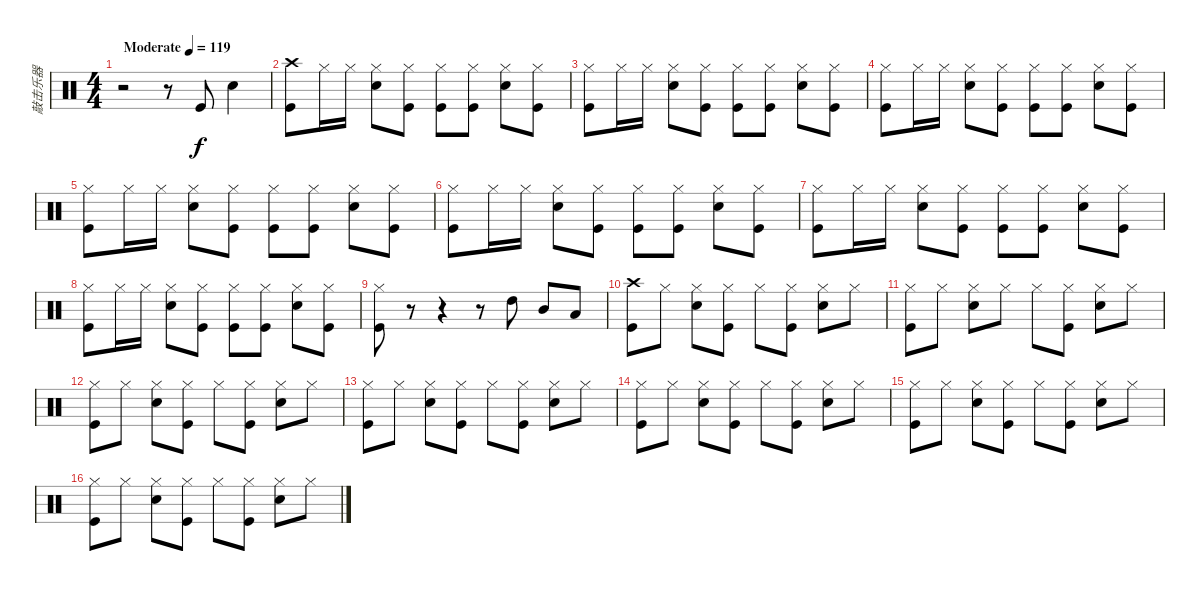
\track ("敲击乐器" "敲击乐器") {instrument percussion}
\staff {score}
\articulation defaults
\ts (4 4)
\tempo (119 "Moderate")
\clef neutral
\ks c
r.2{dy f} r.8 "Kick (hit)".8 "Electric Snare (hit)".4 |
("Crash high (hit)" "Kick (hit)").8 "Hi-Hat (closed)".16 "Hi-Hat (closed)".16 ("Hi-Hat (closed)" "Electric Snare (hit)").8 ("Hi-Hat (closed)" "Kick (hit)").8 ("Hi-Hat (closed)" "Kick (hit)").8 ("Hi-Hat (closed)" "Kick (hit)").8 ("Hi-Hat (closed)" "Electric Snare (hit)").8 ("Hi-Hat (closed)" "Kick (hit)").8 |
("Hi-Hat (closed)" "Kick (hit)").8 "Hi-Hat (closed)".16 "Hi-Hat (closed)".16 ("Hi-Hat (closed)" "Electric Snare (hit)").8 ("Hi-Hat (closed)" "Kick (hit)").8 ("Hi-Hat (closed)" "Kick (hit)").8 ("Hi-Hat (closed)" "Kick (hit)").8 ("Hi-Hat (closed)" "Electric Snare (hit)").8 ("Hi-Hat (closed)" "Kick (hit)").8 |
("Hi-Hat (closed)" "Kick (hit)").8 "Hi-Hat (closed)".16 "Hi-Hat (closed)".16 ("Hi-Hat (closed)" "Electric Snare (hit)").8 ("Hi-Hat (closed)" "Kick (hit)").8 ("Hi-Hat (closed)" "Kick (hit)").8 ("Hi-Hat (closed)" "Kick (hit)").8 ("Hi-Hat (closed)" "Electric Snare (hit)").8 ("Hi-Hat (closed)" "Kick (hit)").8 |
("Hi-Hat (closed)" "Kick (hit)").8 "Hi-Hat (closed)".16 "Hi-Hat (closed)".16 ("Hi-Hat (closed)" "Electric Snare (hit)").8 ("Hi-Hat (closed)" "Kick (hit)").8 ("Hi-Hat (closed)" "Kick (hit)").8 ("Hi-Hat (closed)" "Kick (hit)").8 ("Hi-Hat (closed)" "Electric Snare (hit)").8 ("Hi-Hat (closed)" "Kick (hit)").8 |
("Hi-Hat (closed)" "Kick (hit)").8 "Hi-Hat (closed)".16 "Hi-Hat (closed)".16 ("Hi-Hat (closed)" "Electric Snare (hit)").8 ("Hi-Hat (closed)" "Kick (hit)").8 ("Hi-Hat (closed)" "Kick (hit)").8 ("Hi-Hat (closed)" "Kick (hit)").8 ("Hi-Hat (closed)" "Electric Snare (hit)").8 ("Hi-Hat (closed)" "Kick (hit)").8 |
("Hi-Hat (closed)" "Kick (hit)").8 "Hi-Hat (closed)".16 "Hi-Hat (closed)".16 ("Hi-Hat (closed)" "Electric Snare (hit)").8 ("Hi-Hat (closed)" "Kick (hit)").8 ("Hi-Hat (closed)" "Kick (hit)").8 ("Hi-Hat (closed)" "Kick (hit)").8 ("Hi-Hat (closed)" "Electric Snare (hit)").8 ("Hi-Hat (closed)" "Kick (hit)").8 |
("Hi-Hat (closed)" "Kick (hit)").8 "Hi-Hat (closed)".16 "Hi-Hat (closed)".16 ("Hi-Hat (closed)" "Electric Snare (hit)").8 ("Hi-Hat (closed)" "Kick (hit)").8 ("Hi-Hat (closed)" "Kick (hit)").8 ("Hi-Hat (closed)" "Kick (hit)").8 ("Hi-Hat (closed)" "Electric Snare (hit)").8 ("Hi-Hat (closed)" "Kick (hit)").8 |
("Hi-Hat (closed)" "Kick (hit)").8 r.8 r.4 r.8 "High Tom (hit)".8 "Mid Tom (hit)".8 "Low Tom (hit)".8 |
("Crash high (hit)" "Kick (hit)").8 "Hi-Hat (closed)".8 ("Hi-Hat (closed)" "Electric Snare (hit)").8 ("Hi-Hat (closed)" "Kick (hit)").8 "Hi-Hat (closed)".8 ("Hi-Hat (closed)" "Kick (hit)").8 ("Hi-Hat (closed)" "Electric Snare (hit)").8 "Hi-Hat (closed)".8 |
("Hi-Hat (closed)" "Kick (hit)").8 "Hi-Hat (closed)".8 ("Hi-Hat (closed)" "Electric Snare (hit)").8 "Hi-Hat (closed)".8 "Hi-Hat (closed)".8 ("Hi-Hat (closed)" "Kick (hit)").8 ("Hi-Hat (closed)" "Electric Snare (hit)").8 "Hi-Hat (closed)".8 |
("Hi-Hat (closed)" "Kick (hit)").8 "Hi-Hat (closed)".8 ("Hi-Hat (closed)" "Electric Snare (hit)").8 ("Hi-Hat (closed)" "Kick (hit)").8 "Hi-Hat (closed)".8 ("Hi-Hat (closed)" "Kick (hit)").8 ("Hi-Hat (closed)" "Electric Snare (hit)").8 "Hi-Hat (closed)".8 |
("Hi-Hat (closed)" "Kick (hit)").8 "Hi-Hat (closed)".8 ("Hi-Hat (closed)" "Electric Snare (hit)").8 ("Hi-Hat (closed)" "Kick (hit)").8 "Hi-Hat (closed)".8 ("Hi-Hat (closed)" "Kick (hit)").8 ("Hi-Hat (closed)" "Electric Snare (hit)").8 "Hi-Hat (closed)".8 |
("Hi-Hat (closed)" "Kick (hit)").8 "Hi-Hat (closed)".8 ("Hi-Hat (closed)" "Electric Snare (hit)").8 ("Hi-Hat (closed)" "Kick (hit)").8 "Hi-Hat (closed)".8 ("Hi-Hat (closed)" "Kick (hit)").8 ("Hi-Hat (closed)" "Electric Snare (hit)").8 "Hi-Hat (closed)".8 |
("Hi-Hat (closed)" "Kick (hit)").8 "Hi-Hat (closed)".8 ("Hi-Hat (closed)" "Electric Snare (hit)").8 ("Hi-Hat (closed)" "Kick (hit)").8 "Hi-Hat (closed)".8 ("Hi-Hat (closed)" "Kick (hit)").8 ("Hi-Hat (closed)" "Electric Snare (hit)").8 "Hi-Hat (closed)".8 |
("Hi-Hat (closed)" "Kick (hit)").8 "Hi-Hat (closed)".8 ("Hi-Hat (closed)" "Electric Snare (hit)").8 ("Hi-Hat (closed)" "Kick (hit)").8 "Hi-Hat (closed)".8 ("Hi-Hat (closed)" "Kick (hit)").8 ("Hi-Hat (closed)" "Electric Snare (hit)").8 "Hi-Hat (closed)".8
